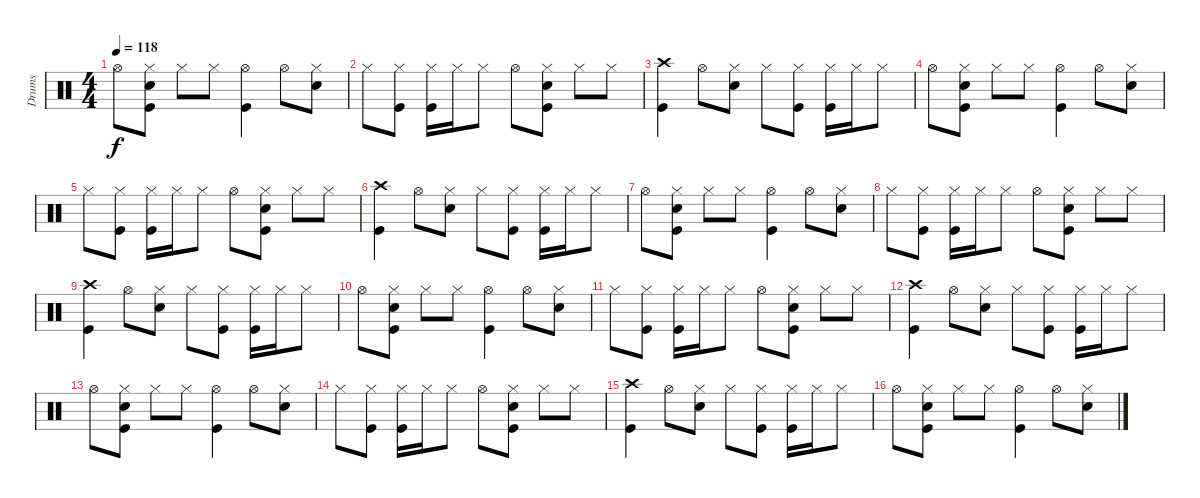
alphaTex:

\track ("Drums" "Drums") {instrument percussion}
\staff {score}
\articulation defaults
\ts (4 4)
\tempo 118
\clef neutral
\ks c "Hi-Hat (open)".8{dy f}
("Kick (hit)" "Snare (hit) 2" "Hi-Hat (closed)").8 "Hi-Hat (closed)".8 "Hi-Hat (closed)".8 ("Kick (hit)" "Hi-Hat (open)").4 "Hi-Hat (open)".8 ("Snare (hit) 2" "Hi-Hat (closed)").8 |
"Hi-Hat (closed)".8 ("Kick (hit)" "Hi-Hat (closed)").8 ("Kick (hit)" "Hi-Hat (closed)").16 "Hi-Hat (closed)".16 "Hi-Hat (closed)".8 "Hi-Hat (open)".8 ("Kick (hit)" "Snare (hit) 2" "Hi-Hat (closed)").8 "Hi-Hat (closed)".8 "Hi-Hat (closed)".8 |
("Kick (hit)" "Crash high (hit)").4 "Hi-Hat (open)".8 ("Snare (hit) 2" "Hi-Hat (closed)").8 "Hi-Hat (closed)".8 ("Kick (hit)" "Hi-Hat (closed)").8 ("Kick (hit)" "Hi-Hat (closed)").16 "Hi-Hat (closed)".16 "Hi-Hat (closed)".8 |
"Hi-Hat (open)".8 ("Kick (hit)" "Snare (hit) 2" "Hi-Hat (closed)").8 "Hi-Hat (closed)".8 "Hi-Hat (closed)".8 ("Kick (hit)" "Hi-Hat (open)").4 "Hi-Hat (open)".8 ("Snare (hit) 2" "Hi-Hat (closed)").8 |
"Hi-Hat (closed)".8 ("Kick (hit)" "Hi-Hat (closed)").8 ("Kick (hit)" "Hi-Hat (closed)").16 "Hi-Hat (closed)".16 "Hi-Hat (closed)".8 "Hi-Hat (open)".8 ("Kick (hit)" "Snare (hit) 2" "Hi-Hat (closed)").8 "Hi-Hat (closed)".8 "Hi-Hat (closed)".8 |
("Kick (hit)" "Crash high (hit)").4 "Hi-Hat (open)".8 ("Snare (hit) 2" "Hi-Hat (closed)").8 "Hi-Hat (closed)".8 ("Kick (hit)" "Hi-Hat (closed)").8 ("Kick (hit)" "Hi-Hat (closed)").16 "Hi-Hat (closed)".16 "Hi-Hat (closed)".8 |
"Hi-Hat (open)".8 ("Kick (hit)" "Snare (hit) 2" "Hi-Hat (closed)").8 "Hi-Hat (closed)".8 "Hi-Hat (closed)".8 ("Kick (hit)" "Hi-Hat (open)").4 "Hi-Hat (open)".8 ("Snare (hit) 2" "Hi-Hat (closed)").8 |
"Hi-Hat (closed)".8 ("Kick (hit)" "Hi-Hat (closed)").8 ("Kick (hit)" "Hi-Hat (closed)").16 "Hi-Hat (closed)".16 "Hi-Hat (closed)".8 "Hi-Hat (open)".8 ("Kick (hit)" "Snare (hit) 2" "Hi-Hat (closed)").8 "Hi-Hat (closed)".8 "Hi-Hat (closed)".8 |
("Kick (hit)" "Crash high (hit)").4 "Hi-Hat (open)".8 ("Snare (hit) 2" "Hi-Hat (closed)").8 "Hi-Hat (closed)".8 ("Kick (hit)" "Hi-Hat (closed)").8 ("Kick (hit)" "Hi-Hat (closed)").16 "Hi-Hat (closed)".16 "Hi-Hat (closed)".8 |
"Hi-Hat (open)".8 ("Kick (hit)" "Snare (hit) 2" "Hi-Hat (closed)").8 "Hi-Hat (closed)".8 "Hi-Hat (closed)".8 ("Kick (hit)" "Hi-Hat (open)").4 "Hi-Hat (open)".8 ("Snare (hit) 2" "Hi-Hat (closed)").8 |
"Hi-Hat (closed)".8 ("Kick (hit)" "Hi-Hat (closed)").8 ("Kick (hit)" "Hi-Hat (closed)").16 "Hi-Hat (closed)".16 "Hi-Hat (closed)".8 "Hi-Hat (open)".8 ("Kick (hit)" "Snare (hit) 2" "Hi-Hat (closed)").8 "Hi-Hat (closed)".8 "Hi-Hat (closed)".8 |
("Kick (hit)" "Crash high (hit)").4 "Hi-Hat (open)".8 ("Snare (hit) 2" "Hi-Hat (closed)").8 "Hi-Hat (closed)".8 ("Kick (hit)" "Hi-Hat (closed)").8 ("Kick (hit)" "Hi-Hat (closed)").16 "Hi-Hat (closed)".16 "Hi-Hat (closed)".8 |
"Hi-Hat (open)".8 ("Kick (hit)" "Snare (hit) 2" "Hi-Hat (closed)").8 "Hi-Hat (closed)".8 "Hi-Hat (closed)".8 ("Kick (hit)" "Hi-Hat (open)").4 "Hi-Hat (open)".8 ("Snare (hit) 2" "Hi-Hat (closed)").8 |
"Hi-Hat (closed)".8 ("Kick (hit)" "Hi-Hat (closed)").8 ("Kick (hit)" "Hi-Hat (closed)").16 "Hi-Hat (closed)".16 "Hi-Hat (closed)".8 "Hi-Hat (open)".8 ("Kick (hit)" "Snare (hit) 2" "Hi-Hat (closed)").8 "Hi-Hat (closed)".8 "Hi-Hat (closed)".8 |
("Kick (hit)" "Crash high (hit)").4 "Hi-Hat (open)".8 ("Snare (hit) 2" "Hi-Hat (closed)").8 "Hi-Hat (closed)".8 ("Kick (hit)" "Hi-Hat (closed)").8 ("Kick (hit)" "Hi-Hat (closed)").16 "Hi-Hat (closed)".16 "Hi-Hat (closed)".8 |
"Hi-Hat (open)".8 ("Kick (hit)" "Snare (hit) 2" "Hi-Hat (closed)").8 "Hi-Hat (closed)".8 "Hi-Hat (closed)".8 ("Kick (hit)" "Hi-Hat (open)").4 "Hi-Hat (open)".8 ("Snare (hit) 2" "Hi-Hat (closed)").8
